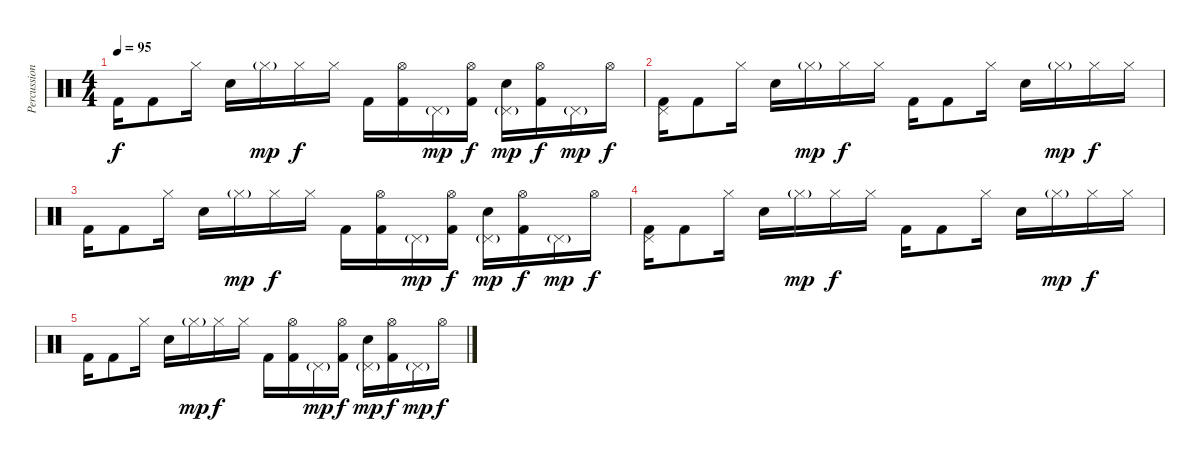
\track ("Percussion" "Percussion") {instrument percussion}
\staff {score}
\articulation defaults
\ts (4 4)
\tempo 95
\clef neutral
\ks c "Kick (hit) 2".16{dy f} "Kick (hit) 2".8 "Hi-Hat (closed)".16 "Electric Snare (hit)".16 "Hi-Hat (closed)"{g}.16{dy mp} "Hi-Hat (closed)".16{dy f} "Hi-Hat (closed)".16 "Kick (hit) 2".16
("Hi-Hat (open)" "Kick (hit) 2").16 "Pedal Hi-Hat (hit)"{g}.16{dy mp} ("Hi-Hat (open)" "Kick (hit) 2").16{dy f} ("Pedal Hi-Hat (hit)"{g} "Electric Snare (hit)").16{dy mp} ("Hi-Hat (open)" "Kick (hit) 2").16{dy f} "Pedal Hi-Hat (hit)"{g}.16{dy mp} "Hi-Hat (open)".16{dy f} |
("Pedal Hi-Hat (hit)" "Kick (hit) 2").16 "Kick (hit) 2".8 "Hi-Hat (closed)".16 "Electric Snare (hit)".16 "Hi-Hat (closed)"{g}.16{dy mp} "Hi-Hat (closed)".16{dy f} "Hi-Hat (closed)".16 "Kick (hit) 2".16 "Kick (hit) 2".8 "Hi-Hat (closed)".16 "Electric Snare (hit)".16 "Hi-Hat (closed)"{g}.16{dy mp} "Hi-Hat (closed)".16{dy f} "Hi-Hat (closed)".16 |
"Kick (hit) 2".16 "Kick (hit) 2".8 "Hi-Hat (closed)".16 "Electric Snare (hit)".16 "Hi-Hat (closed)"{g}.16{dy mp} "Hi-Hat (closed)".16{dy f} "Hi-Hat (closed)".16 "Kick (hit) 2".16 ("Hi-Hat (open)" "Kick (hit) 2").16 "Pedal Hi-Hat (hit)"{g}.16{dy mp} ("Hi-Hat (open)" "Kick (hit) 2").16{dy f} ("Pedal Hi-Hat (hit)"{g} "Electric Snare (hit)").16{dy mp} ("Hi-Hat (open)" "Kick (hit) 2").16{dy f} "Pedal Hi-Hat (hit)"{g}.16{dy mp} "Hi-Hat (open)".16{dy f} |
("Pedal Hi-Hat (hit)" "Kick (hit) 2").16 "Kick (hit) 2".8 "Hi-Hat (closed)".16 "Electric Snare (hit)".16 "Hi-Hat (closed)"{g}.16{dy mp} "Hi-Hat (closed)".16{dy f} "Hi-Hat (closed)".16 "Kick (hit) 2".16 "Kick (hit) 2".8 "Hi-Hat (closed)".16 "Electric Snare (hit)".16 "Hi-Hat (closed)"{g}.16{dy mp} "Hi-Hat (closed)".16{dy f} "Hi-Hat (closed)".16 |
"Kick (hit) 2".16 "Kick (hit) 2".8 "Hi-Hat (closed)".16 "Electric Snare (hit)".16 "Hi-Hat (closed)"{g}.16{dy mp} "Hi-Hat (closed)".16{dy f} "Hi-Hat (closed)".16 "Kick (hit) 2".16 ("Hi-Hat (open)" "Kick (hit) 2").16 "Pedal Hi-Hat (hit)"{g}.16{dy mp} ("Hi-Hat (open)" "Kick (hit) 2").16{dy f} ("Pedal Hi-Hat (hit)"{g} "Electric Snare (hit)").16{dy mp} ("Hi-Hat (open)" "Kick (hit) 2").16{dy f} "Pedal Hi-Hat (hit)"{g}.16{dy mp} "Hi-Hat (open)".16{dy f}
